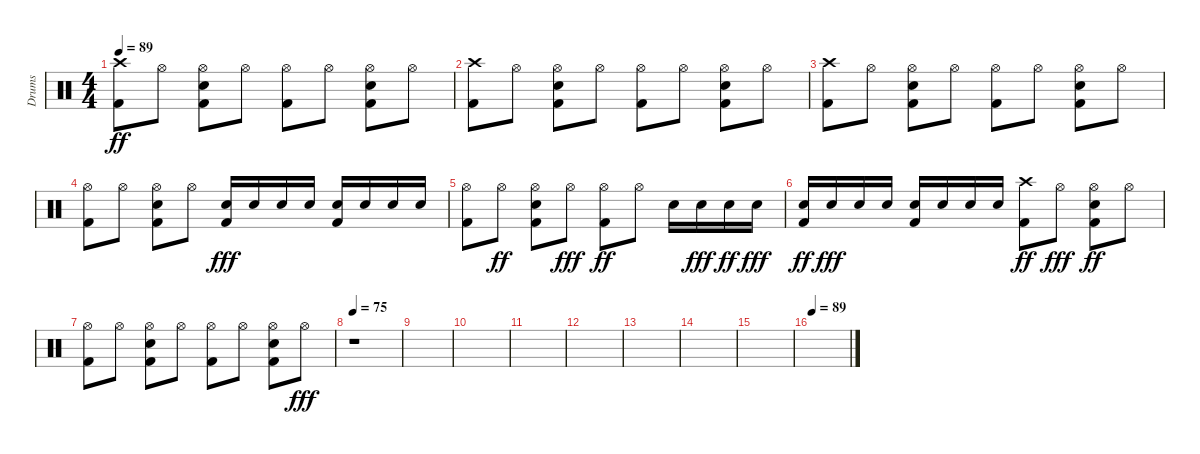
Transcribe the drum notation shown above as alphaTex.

\track ("Drums" "Drums") {instrument percussion}
\staff {score}
\articulation defaults
\ts (4 4)
\tempo 89
\clef neutral
\ks c
("Kick (hit) 2" "Crash high (hit)").8{dy ff volume 11} "Hi-Hat (open)".8{volume 10} ("Kick (hit) 2" "Hi-Hat (open)" "Snare (hit) 2").8{volume 10} "Hi-Hat (open)".8{volume 10} ("Kick (hit) 2" "Hi-Hat (open)").8{volume 10} "Hi-Hat (open)".8{volume 10} ("Kick (hit) 2" "Snare (hit) 2" "Hi-Hat (open)").8{volume 10} "Hi-Hat (open)".8{volume 9} |
("Kick (hit) 2" "Crash high (hit)").8{volume 9} "Hi-Hat (open)".8{volume 9} ("Kick (hit) 2" "Hi-Hat (open)" "Snare (hit) 2").8{volume 9} "Hi-Hat (open)".8{volume 9} ("Kick (hit) 2" "Hi-Hat (open)").8{volume 8} "Hi-Hat (open)".8{volume 8} ("Kick (hit) 2" "Snare (hit) 2" "Hi-Hat (open)").8{volume 8} "Hi-Hat (open)".8{volume 8} |
("Kick (hit) 2" "Crash high (hit)").8{volume 8} "Hi-Hat (open)".8{volume 8} ("Kick (hit) 2" "Hi-Hat (open)" "Snare (hit) 2").8{volume 7} "Hi-Hat (open)".8{volume 7} ("Kick (hit) 2" "Hi-Hat (open)").8{volume 7} "Hi-Hat (open)".8{volume 7} ("Kick (hit) 2" "Snare (hit) 2" "Hi-Hat (open)").8{volume 6} "Hi-Hat (open)".8{volume 6} |
("Kick (hit) 2" "Hi-Hat (open)").8{volume 6} "Hi-Hat (open)".8{volume 6} ("Kick (hit) 2" "Snare (hit) 2" "Hi-Hat (open)").8{volume 6} "Hi-Hat (open)".8{volume 6} ("Kick (hit) 2" "Snare (hit) 2").16{dy fff volume 5} "Snare (hit) 2".16{volume 5} "Snare (hit) 2".16 "Snare (hit) 2".16{volume 5} ("Kick (hit) 2" "Snare (hit) 2").16{volume 5} "Snare (hit) 2".16{volume 5} "Snare (hit) 2".16 "Snare (hit) 2".16{volume 5} |
("Kick (hit) 2" "Hi-Hat (open)").8{volume 5} "Hi-Hat (open)".8{dy ff volume 4} ("Kick (hit) 2" "Hi-Hat (open)" "Snare (hit) 2").8{volume 4} "Hi-Hat (open)".8{dy fff volume 4} ("Kick (hit) 2" "Hi-Hat (open)").8{dy ff volume 4} "Hi-Hat (open)".8{volume 4} "Snare (hit) 2".16{volume 4} "Snare (hit) 2".16{dy fff volume 3} "Snare (hit) 2".16{dy ff volume 3} "Snare (hit) 2".16{dy fff} |
("Kick (hit) 2" "Snare (hit) 2").16{dy ff volume 3} "Snare (hit) 2".16{dy fff volume 3} "Snare (hit) 2".16{volume 3} "Snare (hit) 2".16 ("Kick (hit) 2" "Snare (hit) 2").16{volume 3} "Snare (hit) 2".16{volume 3} "Snare (hit) 2".16{volume 2} "Snare (hit) 2".16 ("Kick (hit) 2" "Crash high (hit)").8{dy ff volume 2} "Hi-Hat (open)".8{dy fff volume 2} ("Kick (hit) 2" "Hi-Hat (open)" "Snare (hit) 2").8{dy ff volume 2} "Hi-Hat (open)".8{volume 2} |
("Kick (hit) 2" "Hi-Hat (open)").8{volume 2} "Hi-Hat (open)".8{volume 1} ("Kick (hit) 2" "Snare (hit) 2" "Hi-Hat (open)").8{volume 1} "Hi-Hat (open)".8{volume 1} ("Kick (hit) 2" "Hi-Hat (open)").8{volume 1} "Hi-Hat (open)".8{volume 1} ("Kick (hit) 2" "Hi-Hat (open)" "Snare (hit) 2").8{volume 0} "Hi-Hat (open)".8{dy fff volume 0} |
\tempo 75
r.1 |
|
|
|
|
|
|
|
\tempo 89
